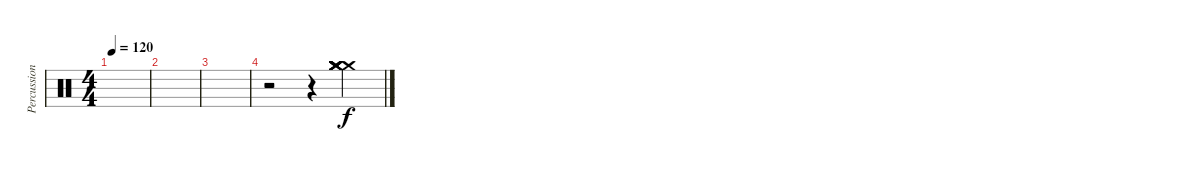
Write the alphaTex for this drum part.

\track ("Percussion" "Percussion") {instrument percussion}
\staff {score}
\articulation defaults
\ts (4 4)
\tempo 120
\clef neutral
\ks c
|
|
|
r.2 r.4 ("Crash medium (hit)" "Crash medium (hit)" "Crash medium (hit)" "Crash medium (hit)" "Crash medium (hit)" "Crash medium (hit)").4
